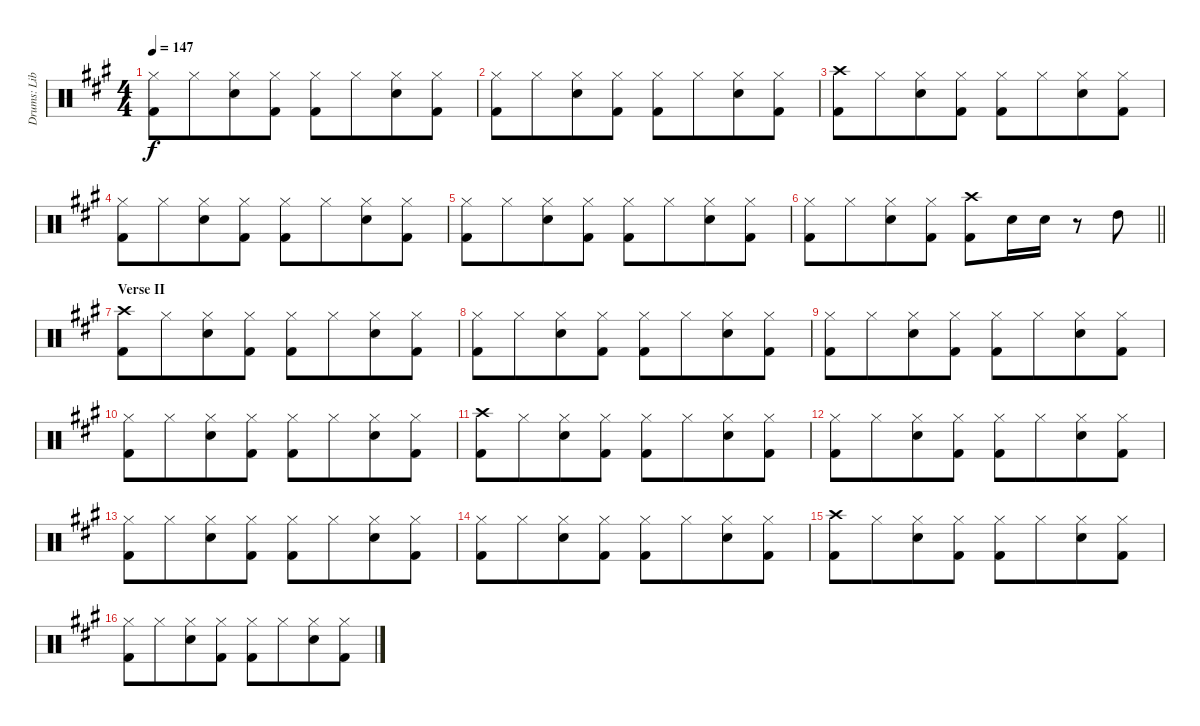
\track ("Drums: Liberty" "Drums: Lib") {instrument percussion}
\staff {score}
\articulation defaults
\ts (4 4)
\tempo 147
\clef neutral
\ks a
("Hi-Hat (closed)" "Kick (hit) 2").8{dy f} "Hi-Hat (closed)".8{beam merge} ("Hi-Hat (closed)" "Electric Snare (hit)").8 ("Hi-Hat (closed)" "Kick (hit) 2").8 ("Hi-Hat (closed)" "Kick (hit) 2").8 "Hi-Hat (closed)".8{beam merge} ("Hi-Hat (closed)" "Electric Snare (hit)").8 ("Hi-Hat (closed)" "Kick (hit) 2").8 |
("Hi-Hat (closed)" "Kick (hit) 2").8 "Hi-Hat (closed)".8{beam merge} ("Hi-Hat (closed)" "Electric Snare (hit)").8 ("Hi-Hat (closed)" "Kick (hit) 2").8 ("Hi-Hat (closed)" "Kick (hit) 2").8 "Hi-Hat (closed)".8{beam merge} ("Hi-Hat (closed)" "Electric Snare (hit)").8 ("Hi-Hat (closed)" "Kick (hit) 2").8 |
("Crash high (hit)" "Kick (hit) 2").8 "Hi-Hat (closed)".8{beam merge} ("Hi-Hat (closed)" "Electric Snare (hit)").8 ("Hi-Hat (closed)" "Kick (hit) 2").8 ("Hi-Hat (closed)" "Kick (hit) 2").8 "Hi-Hat (closed)".8{beam merge} ("Hi-Hat (closed)" "Electric Snare (hit)").8 ("Hi-Hat (closed)" "Kick (hit) 2").8 |
("Hi-Hat (closed)" "Kick (hit) 2").8 "Hi-Hat (closed)".8{beam merge} ("Hi-Hat (closed)" "Electric Snare (hit)").8 ("Hi-Hat (closed)" "Kick (hit) 2").8 ("Hi-Hat (closed)" "Kick (hit) 2").8 "Hi-Hat (closed)".8{beam merge} ("Hi-Hat (closed)" "Electric Snare (hit)").8 ("Hi-Hat (closed)" "Kick (hit) 2").8 |
("Hi-Hat (closed)" "Kick (hit) 2").8 "Hi-Hat (closed)".8{beam merge} ("Hi-Hat (closed)" "Electric Snare (hit)").8 ("Hi-Hat (closed)" "Kick (hit) 2").8 ("Hi-Hat (closed)" "Kick (hit) 2").8 "Hi-Hat (closed)".8{beam merge} ("Hi-Hat (closed)" "Electric Snare (hit)").8 ("Hi-Hat (closed)" "Kick (hit) 2").8 |
\barLineRight lightlight
("Hi-Hat (closed)" "Kick (hit) 2").8 "Hi-Hat (closed)".8{beam merge} ("Hi-Hat (closed)" "Electric Snare (hit)").8 ("Hi-Hat (closed)" "Kick (hit) 2").8 ("Crash high (hit)" "Kick (hit) 2").8 "Electric Snare (hit)".16{beam merge} "Electric Snare (hit)".16 r.8 "High Tom (hit)".8 |
\section ("" "Verse II")
("Crash high (hit)" "Kick (hit) 2").8 "Hi-Hat (closed)".8{beam merge} ("Hi-Hat (closed)" "Electric Snare (hit)").8 ("Hi-Hat (closed)" "Kick (hit) 2").8 ("Hi-Hat (closed)" "Kick (hit) 2").8 "Hi-Hat (closed)".8{beam merge} ("Hi-Hat (closed)" "Electric Snare (hit)").8 ("Hi-Hat (closed)" "Kick (hit) 2").8 |
("Hi-Hat (closed)" "Kick (hit) 2").8 "Hi-Hat (closed)".8{beam merge} ("Hi-Hat (closed)" "Electric Snare (hit)").8 ("Hi-Hat (closed)" "Kick (hit) 2").8 ("Hi-Hat (closed)" "Kick (hit) 2").8 "Hi-Hat (closed)".8{beam merge} ("Hi-Hat (closed)" "Electric Snare (hit)").8 ("Hi-Hat (closed)" "Kick (hit) 2").8 |
("Hi-Hat (closed)" "Kick (hit) 2").8 "Hi-Hat (closed)".8{beam merge} ("Hi-Hat (closed)" "Electric Snare (hit)").8 ("Hi-Hat (closed)" "Kick (hit) 2").8 ("Hi-Hat (closed)" "Kick (hit) 2").8 "Hi-Hat (closed)".8{beam merge} ("Hi-Hat (closed)" "Electric Snare (hit)").8 ("Hi-Hat (closed)" "Kick (hit) 2").8 |
("Hi-Hat (closed)" "Kick (hit) 2").8 "Hi-Hat (closed)".8{beam merge} ("Hi-Hat (closed)" "Electric Snare (hit)").8 ("Hi-Hat (closed)" "Kick (hit) 2").8 ("Hi-Hat (closed)" "Kick (hit) 2").8 "Hi-Hat (closed)".8{beam merge} ("Hi-Hat (closed)" "Electric Snare (hit)").8 ("Hi-Hat (closed)" "Kick (hit) 2").8 |
("Crash high (hit)" "Kick (hit) 2").8 "Hi-Hat (closed)".8{beam merge} ("Hi-Hat (closed)" "Electric Snare (hit)").8 ("Hi-Hat (closed)" "Kick (hit) 2").8 ("Hi-Hat (closed)" "Kick (hit) 2").8 "Hi-Hat (closed)".8{beam merge} ("Hi-Hat (closed)" "Electric Snare (hit)").8 ("Hi-Hat (closed)" "Kick (hit) 2").8 |
("Hi-Hat (closed)" "Kick (hit) 2").8 "Hi-Hat (closed)".8{beam merge} ("Hi-Hat (closed)" "Electric Snare (hit)").8 ("Hi-Hat (closed)" "Kick (hit) 2").8 ("Hi-Hat (closed)" "Kick (hit) 2").8 "Hi-Hat (closed)".8{beam merge} ("Hi-Hat (closed)" "Electric Snare (hit)").8 ("Hi-Hat (closed)" "Kick (hit) 2").8 |
("Hi-Hat (closed)" "Kick (hit) 2").8 "Hi-Hat (closed)".8{beam merge} ("Hi-Hat (closed)" "Electric Snare (hit)").8 ("Hi-Hat (closed)" "Kick (hit) 2").8 ("Hi-Hat (closed)" "Kick (hit) 2").8 "Hi-Hat (closed)".8{beam merge} ("Hi-Hat (closed)" "Electric Snare (hit)").8 ("Hi-Hat (closed)" "Kick (hit) 2").8 |
("Hi-Hat (closed)" "Kick (hit) 2").8 "Hi-Hat (closed)".8{beam merge} ("Hi-Hat (closed)" "Electric Snare (hit)").8 ("Hi-Hat (closed)" "Kick (hit) 2").8 ("Hi-Hat (closed)" "Kick (hit) 2").8 "Hi-Hat (closed)".8{beam merge} ("Hi-Hat (closed)" "Electric Snare (hit)").8 ("Hi-Hat (closed)" "Kick (hit) 2").8 |
("Crash high (hit)" "Kick (hit) 2").8 "Hi-Hat (closed)".8{beam merge} ("Hi-Hat (closed)" "Electric Snare (hit)").8 ("Hi-Hat (closed)" "Kick (hit) 2").8 ("Hi-Hat (closed)" "Kick (hit) 2").8 "Hi-Hat (closed)".8{beam merge} ("Hi-Hat (closed)" "Electric Snare (hit)").8 ("Hi-Hat (closed)" "Kick (hit) 2").8 |
("Hi-Hat (closed)" "Kick (hit) 2").8 "Hi-Hat (closed)".8{beam merge} ("Hi-Hat (closed)" "Electric Snare (hit)").8 ("Hi-Hat (closed)" "Kick (hit) 2").8 ("Hi-Hat (closed)" "Kick (hit) 2").8 "Hi-Hat (closed)".8{beam merge} ("Hi-Hat (closed)" "Electric Snare (hit)").8 ("Hi-Hat (closed)" "Kick (hit) 2").8
